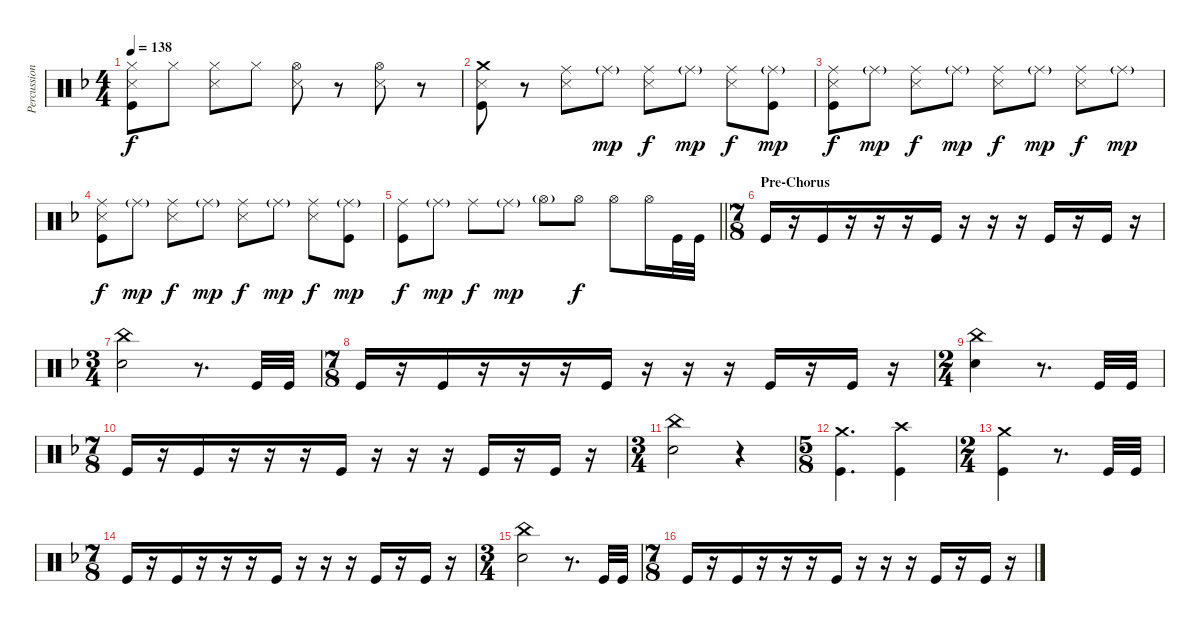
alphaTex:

\track ("Percussion" "Percussion") {instrument percussion}
\staff {score}
\articulation defaults
\ts (4 4)
\tempo 138
\clef neutral
\ks f
("Hi-Hat (closed)" "Metronome (hit)" "Kick (hit)").8{dy f} "Hi-Hat (closed)".8 ("Hi-Hat (closed)" "Metronome (hit)").8 "Hi-Hat (closed)".8 ("Hi-Hat (open)" "Metronome (hit)").8 r.8 ("Hi-Hat (open)" "Metronome (hit)").8 r.8 |
("Crash medium (hit)" "Metronome (hit)" "Kick (hit)").8 r.8 ("Ride (middle)" "Metronome (hit)").8 "Ride (middle)"{g}.8{dy mp} ("Ride (middle)" "Metronome (hit)").8{dy f} "Ride (middle)"{g}.8{dy mp} ("Ride (middle)" "Metronome (hit)").8{dy f} ("Ride (middle)"{g} "Kick (hit)").8{dy mp} |
("Ride (middle)" "Metronome (hit)" "Kick (hit)").8{dy f} "Ride (middle)"{g}.8{dy mp} ("Ride (middle)" "Metronome (hit)").8{dy f} "Ride (middle)"{g}.8{dy mp} ("Ride (middle)" "Metronome (hit)").8{dy f} "Ride (middle)"{g}.8{dy mp} ("Ride (middle)" "Metronome (hit)").8{dy f} "Ride (middle)"{g}.8{dy mp} |
("Ride (middle)" "Metronome (hit)" "Kick (hit)").8{dy f} "Ride (middle)"{g}.8{dy mp} ("Ride (middle)" "Metronome (hit)").8{dy f} "Ride (middle)"{g}.8{dy mp} ("Ride (middle)" "Metronome (hit)").8{dy f} "Ride (middle)"{g}.8{dy mp} ("Ride (middle)" "Metronome (hit)").8{dy f} ("Ride (middle)"{g} "Kick (hit)").8{dy mp} |
\barLineRight lightlight
("Ride (middle)" "Kick (hit)").8{dy f} "Ride (middle)"{g}.8{dy mp} "Ride (middle)".8{dy f} "Ride (middle)"{g}.8{dy mp} "Hi-Hat (open)"{g}.8 "Hi-Hat (open)".8{dy f} "Hi-Hat (open)".8 "Hi-Hat (open)".16 "Kick (hit)".32 "Kick (hit)".32 |
\ts (7 8)
\section ("" "Pre-Chorus")
"Kick (hit)".16 r.16 "Kick (hit)".16 r.16 r.16 r.16 "Kick (hit)".16 r.16 r.16 r.16 "Kick (hit)".16 r.16 "Kick (hit)".16 r.16 |
\ts (3 4)
("China (hit)" "Electric Snare (hit)").2 r.8{d} "Kick (hit)".32 "Kick (hit)".32 |
\ts (7 8)
"Kick (hit)".16 r.16 "Kick (hit)".16 r.16 r.16 r.16 "Kick (hit)".16 r.16 r.16 r.16 "Kick (hit)".16 r.16 "Kick (hit)".16 r.16 |
\ts (2 4)
("China (hit)" "Electric Snare (hit)").4 r.8{d} "Kick (hit)".32 "Kick (hit)".32 |
\ts (7 8)
"Kick (hit)".16 r.16 "Kick (hit)".16 r.16 r.16 r.16 "Kick (hit)".16 r.16 r.16 r.16 "Kick (hit)".16 r.16 "Kick (hit)".16 r.16 |
\ts (3 4)
("China (hit)" "Electric Snare (hit)").2 r.4 |
\ts (5 8)
("Crash medium (hit)" "Kick (hit)").4{d} ("Crash high (hit)" "Kick (hit)").4 |
\ts (2 4)
("Crash medium (hit)" "Kick (hit)").4 r.8{d} "Kick (hit)".32 "Kick (hit)".32 |
\ts (7 8)
"Kick (hit)".16 r.16 "Kick (hit)".16 r.16 r.16 r.16 "Kick (hit)".16 r.16 r.16 r.16 "Kick (hit)".16 r.16 "Kick (hit)".16 r.16 |
\ts (3 4)
("China (hit)" "Electric Snare (hit)").2 r.8{d} "Kick (hit)".32 "Kick (hit)".32 |
\ts (7 8)
"Kick (hit)".16 r.16 "Kick (hit)".16 r.16 r.16 r.16 "Kick (hit)".16 r.16 r.16 r.16 "Kick (hit)".16 r.16 "Kick (hit)".16 r.16
